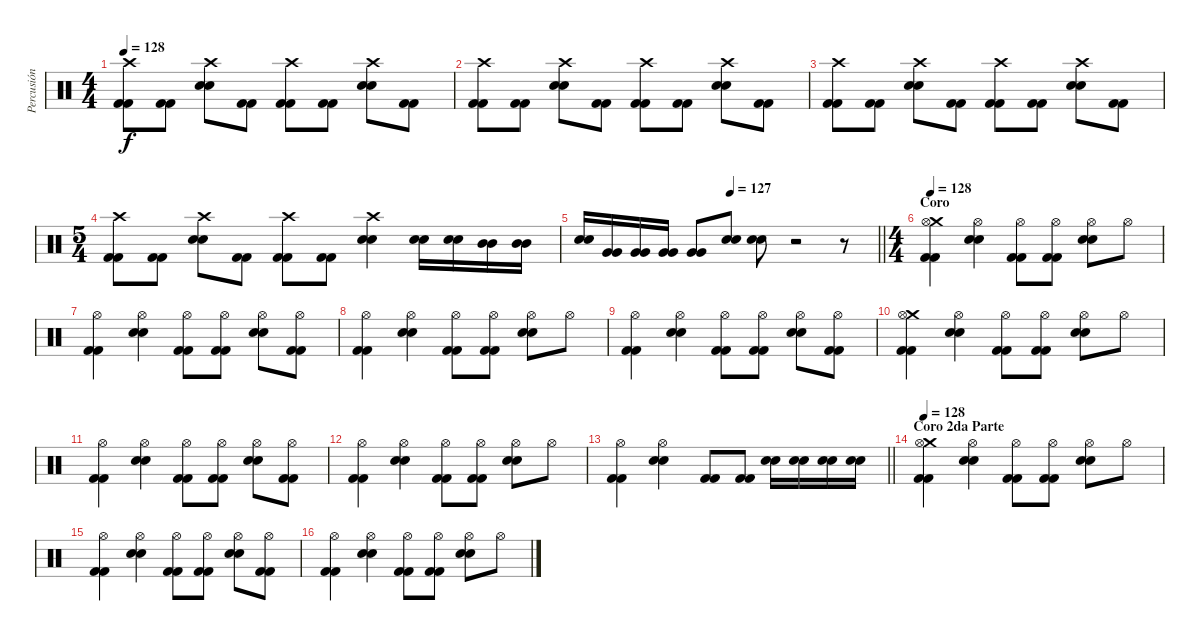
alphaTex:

\track ("Percusión" "Percusión") {instrument percussion}
\staff {score}
\articulation defaults
\ts (4 4)
\tempo 128
\clef neutral
\ks c
("Crash high (hit)" "Kick (hit) 2" "Kick (hit) 2").8{dy f} ("Kick (hit) 2" "Kick (hit) 2").8 ("Crash high (hit)" "Electric Snare (hit)" "Electric Snare (hit)").8 ("Kick (hit) 2" "Kick (hit) 2").8 ("Crash high (hit)" "Kick (hit) 2" "Kick (hit) 2").8 ("Kick (hit) 2" "Kick (hit) 2").8 ("Crash high (hit)" "Electric Snare (hit)" "Electric Snare (hit)").8 ("Kick (hit) 2" "Kick (hit) 2").8 |
("Crash high (hit)" "Kick (hit) 2" "Kick (hit) 2").8 ("Kick (hit) 2" "Kick (hit) 2").8 ("Crash high (hit)" "Electric Snare (hit)" "Electric Snare (hit)").8 ("Kick (hit) 2" "Kick (hit) 2").8 ("Crash high (hit)" "Kick (hit) 2" "Kick (hit) 2").8 ("Kick (hit) 2" "Kick (hit) 2").8 ("Crash high (hit)" "Electric Snare (hit)" "Electric Snare (hit)").8 ("Kick (hit) 2" "Kick (hit) 2").8 |
("Crash high (hit)" "Kick (hit) 2" "Kick (hit) 2").8 ("Kick (hit) 2" "Kick (hit) 2").8 ("Crash high (hit)" "Electric Snare (hit)" "Electric Snare (hit)").8 ("Kick (hit) 2" "Kick (hit) 2").8 ("Crash high (hit)" "Kick (hit) 2" "Kick (hit) 2").8 ("Kick (hit) 2" "Kick (hit) 2").8 ("Crash high (hit)" "Electric Snare (hit)" "Electric Snare (hit)").8 ("Kick (hit) 2" "Kick (hit) 2").8 |
\ts (5 4)
("Crash high (hit)" "Kick (hit) 2" "Kick (hit) 2").8 ("Kick (hit) 2" "Kick (hit) 2").8 ("Crash high (hit)" "Electric Snare (hit)" "Electric Snare (hit)").8 ("Kick (hit) 2" "Kick (hit) 2").8 ("Crash high (hit)" "Kick (hit) 2" "Kick (hit) 2").8 ("Kick (hit) 2" "Kick (hit) 2").8 ("Crash high (hit)" "Electric Snare (hit)" "Electric Snare (hit)").4 ("Electric Snare (hit)" "Electric Snare (hit)").16 ("Electric Snare (hit)" "Electric Snare (hit)").16 ("Mid Tom (hit)" "Mid Tom (hit)").16 ("Mid Tom (hit)" "Mid Tom (hit)").16 |
\tempo (127 0.5)
\barLineRight lightlight
("Electric Snare (hit)" "Electric Snare (hit)").16 ("Very Low Tom (hit)" "Very Low Tom (hit)").16 ("Very Low Tom (hit)" "Very Low Tom (hit)").16 ("Very Low Tom (hit)" "Very Low Tom (hit)").16 ("Very Low Tom (hit)" "Very Low Tom (hit)").8 ("Electric Snare (hit)" "Electric Snare (hit)").8 ("Electric Snare (hit)" "Electric Snare (hit)").8 r.2 r.8 |
\ts (4 4)
\section ("" "Coro")
\tempo 128
("Crash medium (hit)" "Hi-Hat (open)" "Kick (hit) 2" "Kick (hit) 2").4 ("Hi-Hat (open)" "Electric Snare (hit)" "Electric Snare (hit)").4 ("Hi-Hat (open)" "Kick (hit) 2" "Kick (hit) 2").8 ("Hi-Hat (open)" "Kick (hit) 2" "Kick (hit) 2").8 ("Hi-Hat (open)" "Electric Snare (hit)" "Electric Snare (hit)").8 "Hi-Hat (open)".8 |
("Hi-Hat (open)" "Kick (hit) 2" "Kick (hit) 2").4 ("Hi-Hat (open)" "Electric Snare (hit)" "Electric Snare (hit)").4 ("Hi-Hat (open)" "Kick (hit) 2" "Kick (hit) 2").8 ("Hi-Hat (open)" "Kick (hit) 2" "Kick (hit) 2").8 ("Hi-Hat (open)" "Electric Snare (hit)" "Electric Snare (hit)").8 ("Hi-Hat (open)" "Kick (hit) 2" "Kick (hit) 2").8 |
("Hi-Hat (open)" "Kick (hit) 2" "Kick (hit) 2").4 ("Hi-Hat (open)" "Electric Snare (hit)" "Electric Snare (hit)").4 ("Hi-Hat (open)" "Kick (hit) 2" "Kick (hit) 2").8 ("Hi-Hat (open)" "Kick (hit) 2" "Kick (hit) 2").8 ("Hi-Hat (open)" "Electric Snare (hit)" "Electric Snare (hit)").8 "Hi-Hat (open)".8 |
("Hi-Hat (open)" "Kick (hit) 2" "Kick (hit) 2").4 ("Hi-Hat (open)" "Electric Snare (hit)" "Electric Snare (hit)").4 ("Hi-Hat (open)" "Kick (hit) 2" "Kick (hit) 2").8 ("Hi-Hat (open)" "Kick (hit) 2" "Kick (hit) 2").8 ("Hi-Hat (open)" "Electric Snare (hit)" "Electric Snare (hit)").8 ("Hi-Hat (open)" "Kick (hit) 2" "Kick (hit) 2").8 |
("Crash medium (hit)" "Hi-Hat (open)" "Kick (hit) 2" "Kick (hit) 2").4 ("Hi-Hat (open)" "Electric Snare (hit)" "Electric Snare (hit)").4 ("Hi-Hat (open)" "Kick (hit) 2" "Kick (hit) 2").8 ("Hi-Hat (open)" "Kick (hit) 2" "Kick (hit) 2").8 ("Hi-Hat (open)" "Electric Snare (hit)" "Electric Snare (hit)").8 "Hi-Hat (open)".8 |
("Hi-Hat (open)" "Kick (hit) 2" "Kick (hit) 2").4 ("Hi-Hat (open)" "Electric Snare (hit)" "Electric Snare (hit)").4 ("Hi-Hat (open)" "Kick (hit) 2" "Kick (hit) 2").8 ("Hi-Hat (open)" "Kick (hit) 2" "Kick (hit) 2").8 ("Hi-Hat (open)" "Electric Snare (hit)" "Electric Snare (hit)").8 ("Hi-Hat (open)" "Kick (hit) 2" "Kick (hit) 2").8 |
("Hi-Hat (open)" "Kick (hit) 2" "Kick (hit) 2").4 ("Hi-Hat (open)" "Electric Snare (hit)" "Electric Snare (hit)").4 ("Hi-Hat (open)" "Kick (hit) 2" "Kick (hit) 2").8 ("Hi-Hat (open)" "Kick (hit) 2" "Kick (hit) 2").8 ("Hi-Hat (open)" "Electric Snare (hit)" "Electric Snare (hit)").8 "Hi-Hat (open)".8 |
\barLineRight lightlight
("Hi-Hat (open)" "Kick (hit) 2" "Kick (hit) 2").4 ("Hi-Hat (open)" "Electric Snare (hit)" "Electric Snare (hit)").4 ("Kick (hit) 2" "Kick (hit) 2").8 ("Kick (hit) 2" "Kick (hit) 2").8 ("Electric Snare (hit)" "Electric Snare (hit)").16 ("Electric Snare (hit)" "Electric Snare (hit)").16 ("Electric Snare (hit)" "Electric Snare (hit)").16 ("Electric Snare (hit)" "Electric Snare (hit)").16 |
\section ("" "Coro 2da Parte")
\tempo 128
("Crash medium (hit)" "Hi-Hat (open)" "Kick (hit) 2" "Kick (hit) 2").4 ("Hi-Hat (open)" "Electric Snare (hit)" "Electric Snare (hit)").4 ("Hi-Hat (open)" "Kick (hit) 2" "Kick (hit) 2").8 ("Hi-Hat (open)" "Kick (hit) 2" "Kick (hit) 2").8 ("Hi-Hat (open)" "Electric Snare (hit)" "Electric Snare (hit)").8 "Hi-Hat (open)".8 |
("Hi-Hat (open)" "Kick (hit) 2" "Kick (hit) 2").4 ("Hi-Hat (open)" "Electric Snare (hit)" "Electric Snare (hit)").4 ("Hi-Hat (open)" "Kick (hit) 2" "Kick (hit) 2").8 ("Hi-Hat (open)" "Kick (hit) 2" "Kick (hit) 2").8 ("Hi-Hat (open)" "Electric Snare (hit)" "Electric Snare (hit)").8 ("Hi-Hat (open)" "Kick (hit) 2" "Kick (hit) 2").8 |
("Hi-Hat (open)" "Kick (hit) 2" "Kick (hit) 2").4 ("Hi-Hat (open)" "Electric Snare (hit)" "Electric Snare (hit)").4 ("Hi-Hat (open)" "Kick (hit) 2" "Kick (hit) 2").8 ("Hi-Hat (open)" "Kick (hit) 2" "Kick (hit) 2").8 ("Hi-Hat (open)" "Electric Snare (hit)" "Electric Snare (hit)").8 "Hi-Hat (open)".8
